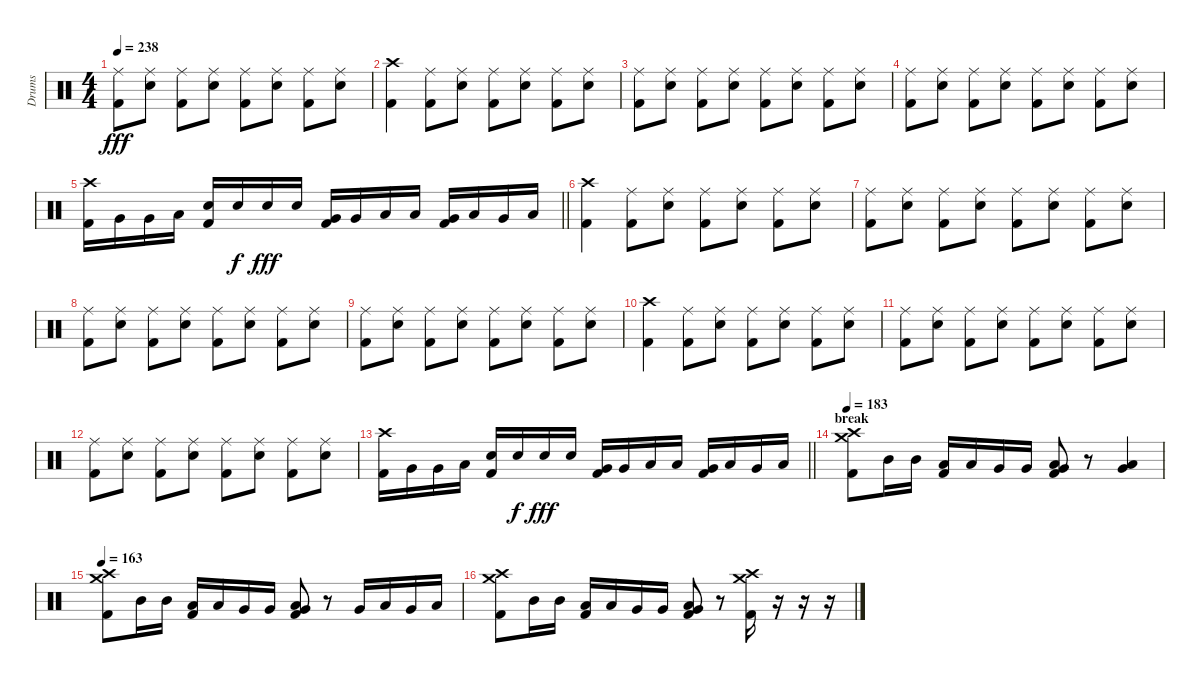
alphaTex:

\track ("Drums" "Drums") {instrument percussion}
\staff {score}
\articulation defaults
\ts (4 4)
\tempo 238
\clef neutral
\ks c
("Ride (middle)" "Kick (hit) 2").8{dy fff} ("Ride (middle)" "Electric Snare (hit)").8 ("Ride (middle)" "Kick (hit) 2").8 ("Ride (middle)" "Electric Snare (hit)").8 ("Ride (middle)" "Kick (hit) 2").8 ("Ride (middle)" "Electric Snare (hit)").8 ("Ride (middle)" "Kick (hit) 2").8 ("Ride (middle)" "Electric Snare (hit)").8 |
("Crash high (hit)" "Kick (hit) 2").4 ("Ride (middle)" "Kick (hit) 2").8 ("Ride (middle)" "Electric Snare (hit)").8 ("Ride (middle)" "Kick (hit) 2").8 ("Ride (middle)" "Electric Snare (hit)").8 ("Ride (middle)" "Kick (hit) 2").8 ("Ride (middle)" "Electric Snare (hit)").8 |
("Ride (middle)" "Kick (hit) 2").8 ("Ride (middle)" "Electric Snare (hit)").8 ("Ride (middle)" "Kick (hit) 2").8 ("Ride (middle)" "Electric Snare (hit)").8 ("Ride (middle)" "Kick (hit) 2").8 ("Ride (middle)" "Electric Snare (hit)").8 ("Ride (middle)" "Kick (hit) 2").8 ("Ride (middle)" "Electric Snare (hit)").8 |
("Ride (middle)" "Kick (hit) 2").8 ("Ride (middle)" "Electric Snare (hit)").8 ("Ride (middle)" "Kick (hit) 2").8 ("Ride (middle)" "Electric Snare (hit)").8 ("Ride (middle)" "Kick (hit) 2").8 ("Ride (middle)" "Electric Snare (hit)").8 ("Ride (middle)" "Kick (hit) 2").8 ("Ride (middle)" "Electric Snare (hit)").8 |
\barLineRight lightlight
("Crash high (hit)" "Kick (hit) 2").16 "Very Low Tom (hit)".16 "Very Low Tom (hit)".16 "Low Floor Tom (hit)".16 ("Electric Snare (hit)" "Kick (hit) 2").16 "Electric Snare (hit)".16{dy f} "Electric Snare (hit)".16{dy fff} "Electric Snare (hit)".16 ("Very Low Tom (hit)" "Kick (hit) 2").16 "Very Low Tom (hit)".16 "Low Floor Tom (hit)".16 "Low Floor Tom (hit)".16 ("Very Low Tom (hit)" "Kick (hit) 2").16 "Low Floor Tom (hit)".16 "Very Low Tom (hit)".16 "Low Floor Tom (hit)".16 |
("Crash high (hit)" "Kick (hit) 2").4 ("Ride (middle)" "Kick (hit) 2").8 ("Ride (middle)" "Electric Snare (hit)").8 ("Ride (middle)" "Kick (hit) 2").8 ("Ride (middle)" "Electric Snare (hit)").8 ("Ride (middle)" "Kick (hit) 2").8 ("Ride (middle)" "Electric Snare (hit)").8 |
("Ride (middle)" "Kick (hit) 2").8 ("Ride (middle)" "Electric Snare (hit)").8 ("Ride (middle)" "Kick (hit) 2").8 ("Ride (middle)" "Electric Snare (hit)").8 ("Ride (middle)" "Kick (hit) 2").8 ("Ride (middle)" "Electric Snare (hit)").8 ("Ride (middle)" "Kick (hit) 2").8 ("Ride (middle)" "Electric Snare (hit)").8 |
("Ride (middle)" "Kick (hit) 2").8 ("Ride (middle)" "Electric Snare (hit)").8 ("Ride (middle)" "Kick (hit) 2").8 ("Ride (middle)" "Electric Snare (hit)").8 ("Ride (middle)" "Kick (hit) 2").8 ("Ride (middle)" "Electric Snare (hit)").8 ("Ride (middle)" "Kick (hit) 2").8 ("Ride (middle)" "Electric Snare (hit)").8 |
("Ride (middle)" "Kick (hit) 2").8 ("Ride (middle)" "Electric Snare (hit)").8 ("Ride (middle)" "Kick (hit) 2").8 ("Ride (middle)" "Electric Snare (hit)").8 ("Ride (middle)" "Kick (hit) 2").8 ("Ride (middle)" "Electric Snare (hit)").8 ("Ride (middle)" "Kick (hit) 2").8 ("Ride (middle)" "Electric Snare (hit)").8 |
("Crash high (hit)" "Kick (hit) 2").4 ("Ride (middle)" "Kick (hit) 2").8 ("Ride (middle)" "Electric Snare (hit)").8 ("Ride (middle)" "Kick (hit) 2").8 ("Ride (middle)" "Electric Snare (hit)").8 ("Ride (middle)" "Kick (hit) 2").8 ("Ride (middle)" "Electric Snare (hit)").8 |
("Ride (middle)" "Kick (hit) 2").8 ("Ride (middle)" "Electric Snare (hit)").8 ("Ride (middle)" "Kick (hit) 2").8 ("Ride (middle)" "Electric Snare (hit)").8 ("Ride (middle)" "Kick (hit) 2").8 ("Ride (middle)" "Electric Snare (hit)").8 ("Ride (middle)" "Kick (hit) 2").8 ("Ride (middle)" "Electric Snare (hit)").8 |
("Ride (middle)" "Kick (hit) 2").8 ("Ride (middle)" "Electric Snare (hit)").8 ("Ride (middle)" "Kick (hit) 2").8 ("Ride (middle)" "Electric Snare (hit)").8 ("Ride (middle)" "Kick (hit) 2").8 ("Ride (middle)" "Electric Snare (hit)").8 ("Ride (middle)" "Kick (hit) 2").8 ("Ride (middle)" "Electric Snare (hit)").8 |
\barLineRight lightlight
("Crash high (hit)" "Kick (hit) 2").16 "Very Low Tom (hit)".16 "Very Low Tom (hit)".16 "Low Floor Tom (hit)".16 ("Electric Snare (hit)" "Kick (hit) 2").16 "Electric Snare (hit)".16{dy f} "Electric Snare (hit)".16{dy fff} "Electric Snare (hit)".16 ("Very Low Tom (hit)" "Kick (hit) 2").16 "Very Low Tom (hit)".16 "Low Floor Tom (hit)".16 "Low Floor Tom (hit)".16 ("Very Low Tom (hit)" "Kick (hit) 2").16 "Low Floor Tom (hit)".16 "Very Low Tom (hit)".16 "Low Floor Tom (hit)".16 |
\section ("" "break")
\tempo 183
("Crash high (hit)" "Crash medium (hit)" "Kick (hit) 2").8 "Mid Tom (hit)".16 "Mid Tom (hit)".16 ("Low Tom (hit)" "Kick (hit) 2").16 "Low Tom (hit)".16 "Very Low Tom (hit)".16 "Very Low Tom (hit)".16 ("Low Floor Tom (hit)" "Very Low Tom (hit)" "Kick (hit) 2").8 r.8 ("Very Low Tom (hit)" "Low Floor Tom (hit)").4 |
\tempo 163
("Crash high (hit)" "Crash medium (hit)" "Kick (hit) 2").8 "Mid Tom (hit)".16 "Mid Tom (hit)".16 ("Low Tom (hit)" "Kick (hit) 2").16 "Low Tom (hit)".16 "Very Low Tom (hit)".16 "Very Low Tom (hit)".16 ("Low Floor Tom (hit)" "Very Low Tom (hit)" "Kick (hit) 2").8 r.8 "Very Low Tom (hit)".16 "Low Floor Tom (hit)".16 "Very Low Tom (hit)".16 "Low Floor Tom (hit)".16 |
("Crash high (hit)" "Crash medium (hit)" "Kick (hit) 2").8 "Mid Tom (hit)".16 "Mid Tom (hit)".16 ("Low Tom (hit)" "Kick (hit) 2").16 "Low Tom (hit)".16 "Very Low Tom (hit)".16 "Very Low Tom (hit)".16 ("Low Floor Tom (hit)" "Very Low Tom (hit)" "Kick (hit) 2").8 r.8 ("Crash high (hit)" "Crash medium (hit)" "Kick (hit) 2").16 r.16 r.16 r.16
